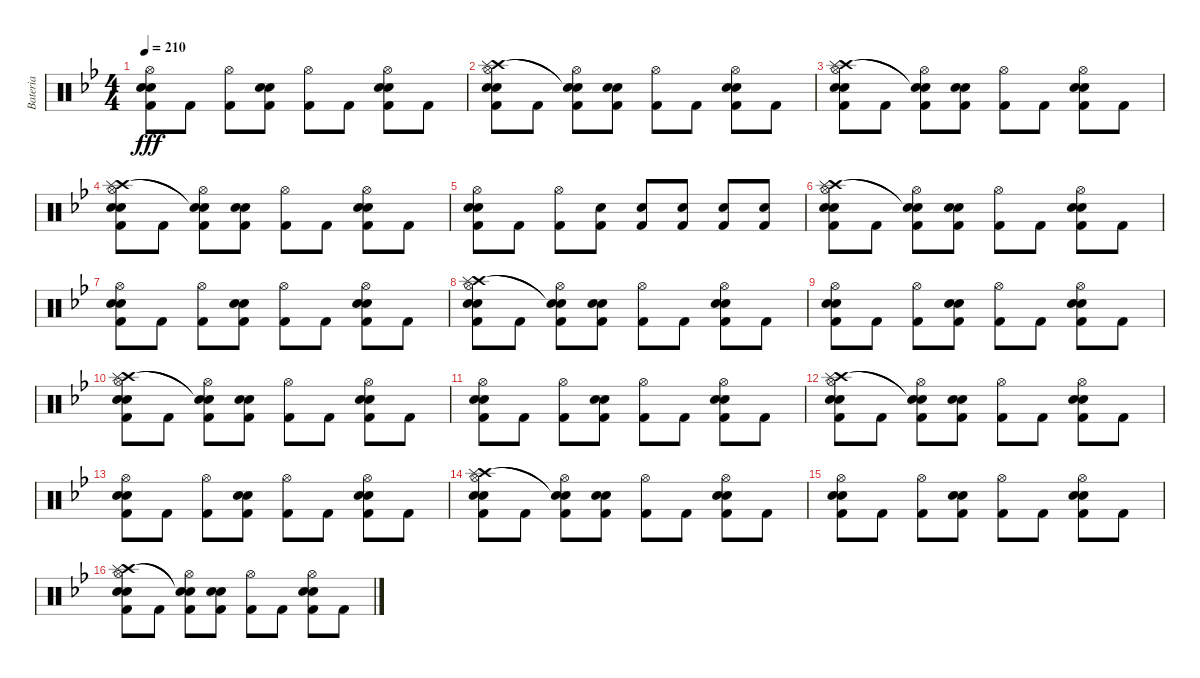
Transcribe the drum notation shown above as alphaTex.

\track ("Bateria" "Bateria") {instrument percussion}
\staff {score}
\articulation defaults
\ts (4 4)
\tempo 210
\clef neutral
\ks gminor
("Hi-Hat (open)" "Snare (hit) 2" "Kick (hit) 2" "Electric Snare (hit)").8{dy fff} "Kick (hit) 2".8 ("Hi-Hat (open)" "Kick (hit) 2").8 ("Snare (hit) 2" "Kick (hit) 2" "Electric Snare (hit)").8 ("Hi-Hat (open)" "Kick (hit) 2").8 "Kick (hit) 2".8 ("Hi-Hat (open)" "Snare (hit) 2" "Kick (hit) 2" "Electric Snare (hit)").8 "Kick (hit) 2".8 |
("Hi-Hat (open)" "Crash high (hit)" "Splash (hit)" "Snare (hit) 2" "Kick (hit) 2" "Electric Snare (hit)").8 "Kick (hit) 2".8 ("Hi-Hat (open)" "Snare (hit)"{t} "Snare (hit)"{t} "Kick (hit) 2").8 ("Snare (hit) 2" "Kick (hit) 2" "Electric Snare (hit)").8 ("Hi-Hat (open)" "Kick (hit) 2").8 "Kick (hit) 2".8 ("Hi-Hat (open)" "Snare (hit) 2" "Kick (hit) 2" "Electric Snare (hit)").8 "Kick (hit) 2".8 |
("Hi-Hat (open)" "Crash high (hit)" "Splash (hit)" "Snare (hit) 2" "Kick (hit) 2" "Electric Snare (hit)").8 "Kick (hit) 2".8 ("Hi-Hat (open)" "Snare (hit)"{t} "Snare (hit)"{t} "Kick (hit) 2").8 ("Snare (hit) 2" "Kick (hit) 2" "Electric Snare (hit)").8 ("Hi-Hat (open)" "Kick (hit) 2").8 "Kick (hit) 2".8 ("Hi-Hat (open)" "Snare (hit) 2" "Kick (hit) 2" "Electric Snare (hit)").8 "Kick (hit) 2".8 |
("Hi-Hat (open)" "Crash high (hit)" "Splash (hit)" "Snare (hit) 2" "Kick (hit) 2" "Electric Snare (hit)").8 "Kick (hit) 2".8 ("Hi-Hat (open)" "Snare (hit)"{t} "Snare (hit)"{t} "Kick (hit) 2").8 ("Snare (hit) 2" "Kick (hit) 2" "Electric Snare (hit)").8 ("Hi-Hat (open)" "Kick (hit) 2").8 "Kick (hit) 2".8 ("Hi-Hat (open)" "Snare (hit) 2" "Kick (hit) 2" "Electric Snare (hit)").8 "Kick (hit) 2".8 |
("Hi-Hat (open)" "Snare (hit) 2" "Kick (hit) 2" "Electric Snare (hit)").8 "Kick (hit) 2".8 ("Hi-Hat (open)" "Kick (hit) 2").8 ("Snare (hit) 2" "Kick (hit) 2").8 ("Snare (hit) 2" "Kick (hit) 2").8 ("Snare (hit) 2" "Kick (hit) 2").8 ("Snare (hit) 2" "Kick (hit) 2").8 ("Snare (hit) 2" "Kick (hit) 2").8 |
("Hi-Hat (open)" "Crash high (hit)" "Splash (hit)" "Snare (hit) 2" "Electric Snare (hit)" "Kick (hit) 2").8 "Kick (hit) 2".8 ("Hi-Hat (open)" "Snare (hit)"{t} "Snare (hit)"{t} "Kick (hit) 2").8 ("Snare (hit) 2" "Electric Snare (hit)" "Kick (hit) 2").8 ("Hi-Hat (open)" "Kick (hit) 2").8 "Kick (hit) 2".8 ("Hi-Hat (open)" "Snare (hit) 2" "Electric Snare (hit)" "Kick (hit) 2").8 "Kick (hit) 2".8 |
("Hi-Hat (open)" "Snare (hit) 2" "Kick (hit) 2" "Electric Snare (hit)").8 "Kick (hit) 2".8 ("Hi-Hat (open)" "Kick (hit) 2").8 ("Snare (hit) 2" "Kick (hit) 2" "Electric Snare (hit)").8 ("Hi-Hat (open)" "Kick (hit) 2").8 "Kick (hit) 2".8 ("Hi-Hat (open)" "Snare (hit) 2" "Kick (hit) 2" "Electric Snare (hit)").8 "Kick (hit) 2".8 |
("Hi-Hat (open)" "Crash high (hit)" "Splash (hit)" "Snare (hit) 2" "Kick (hit) 2" "Electric Snare (hit)").8 "Kick (hit) 2".8 ("Hi-Hat (open)" "Snare (hit)"{t} "Snare (hit)"{t} "Kick (hit) 2").8 ("Snare (hit) 2" "Kick (hit) 2" "Electric Snare (hit)").8 ("Hi-Hat (open)" "Kick (hit) 2").8 "Kick (hit) 2".8 ("Hi-Hat (open)" "Snare (hit) 2" "Kick (hit) 2" "Electric Snare (hit)").8 "Kick (hit) 2".8 |
("Hi-Hat (open)" "Snare (hit) 2" "Kick (hit) 2" "Electric Snare (hit)").8 "Kick (hit) 2".8 ("Hi-Hat (open)" "Kick (hit) 2").8 ("Snare (hit) 2" "Kick (hit) 2" "Electric Snare (hit)").8 ("Hi-Hat (open)" "Kick (hit) 2").8 "Kick (hit) 2".8 ("Hi-Hat (open)" "Snare (hit) 2" "Kick (hit) 2" "Electric Snare (hit)").8 "Kick (hit) 2".8 |
("Hi-Hat (open)" "Crash high (hit)" "Splash (hit)" "Snare (hit) 2" "Kick (hit) 2" "Electric Snare (hit)").8 "Kick (hit) 2".8 ("Hi-Hat (open)" "Snare (hit)"{t} "Snare (hit)"{t} "Kick (hit) 2").8 ("Snare (hit) 2" "Kick (hit) 2" "Electric Snare (hit)").8 ("Hi-Hat (open)" "Kick (hit) 2").8 "Kick (hit) 2".8 ("Hi-Hat (open)" "Snare (hit) 2" "Kick (hit) 2" "Electric Snare (hit)").8 "Kick (hit) 2".8 |
("Hi-Hat (open)" "Snare (hit) 2" "Kick (hit) 2" "Electric Snare (hit)").8 "Kick (hit) 2".8 ("Hi-Hat (open)" "Kick (hit) 2").8 ("Snare (hit) 2" "Kick (hit) 2" "Electric Snare (hit)").8 ("Hi-Hat (open)" "Kick (hit) 2").8 "Kick (hit) 2".8 ("Hi-Hat (open)" "Snare (hit) 2" "Kick (hit) 2" "Electric Snare (hit)").8 "Kick (hit) 2".8 |
("Hi-Hat (open)" "Crash high (hit)" "Splash (hit)" "Snare (hit) 2" "Kick (hit) 2" "Electric Snare (hit)").8 "Kick (hit) 2".8 ("Hi-Hat (open)" "Snare (hit)"{t} "Snare (hit)"{t} "Kick (hit) 2").8 ("Snare (hit) 2" "Kick (hit) 2" "Electric Snare (hit)").8 ("Hi-Hat (open)" "Kick (hit) 2").8 "Kick (hit) 2".8 ("Hi-Hat (open)" "Snare (hit) 2" "Kick (hit) 2" "Electric Snare (hit)").8 "Kick (hit) 2".8 |
("Hi-Hat (open)" "Snare (hit) 2" "Kick (hit) 2" "Electric Snare (hit)").8 "Kick (hit) 2".8 ("Hi-Hat (open)" "Kick (hit) 2").8 ("Snare (hit) 2" "Kick (hit) 2" "Electric Snare (hit)").8 ("Hi-Hat (open)" "Kick (hit) 2").8 "Kick (hit) 2".8 ("Hi-Hat (open)" "Snare (hit) 2" "Kick (hit) 2" "Electric Snare (hit)").8 "Kick (hit) 2".8 |
("Hi-Hat (open)" "Crash high (hit)" "Splash (hit)" "Snare (hit) 2" "Electric Snare (hit)" "Kick (hit) 2").8 "Kick (hit) 2".8 ("Hi-Hat (open)" "Snare (hit)"{t} "Snare (hit)"{t} "Kick (hit) 2").8 ("Snare (hit) 2" "Electric Snare (hit)" "Kick (hit) 2").8 ("Hi-Hat (open)" "Kick (hit) 2").8 "Kick (hit) 2".8 ("Hi-Hat (open)" "Snare (hit) 2" "Electric Snare (hit)" "Kick (hit) 2").8 "Kick (hit) 2".8 |
("Hi-Hat (open)" "Snare (hit) 2" "Kick (hit) 2" "Electric Snare (hit)").8 "Kick (hit) 2".8 ("Hi-Hat (open)" "Kick (hit) 2").8 ("Snare (hit) 2" "Kick (hit) 2" "Electric Snare (hit)").8 ("Hi-Hat (open)" "Kick (hit) 2").8 "Kick (hit) 2".8 ("Hi-Hat (open)" "Snare (hit) 2" "Kick (hit) 2" "Electric Snare (hit)").8 "Kick (hit) 2".8 |
("Hi-Hat (open)" "Crash high (hit)" "Splash (hit)" "Snare (hit) 2" "Kick (hit) 2" "Electric Snare (hit)").8 "Kick (hit) 2".8 ("Hi-Hat (open)" "Snare (hit)"{t} "Snare (hit)"{t} "Kick (hit) 2").8 ("Snare (hit) 2" "Kick (hit) 2" "Electric Snare (hit)").8 ("Hi-Hat (open)" "Kick (hit) 2").8 "Kick (hit) 2".8 ("Hi-Hat (open)" "Snare (hit) 2" "Kick (hit) 2" "Electric Snare (hit)").8 "Kick (hit) 2".8
